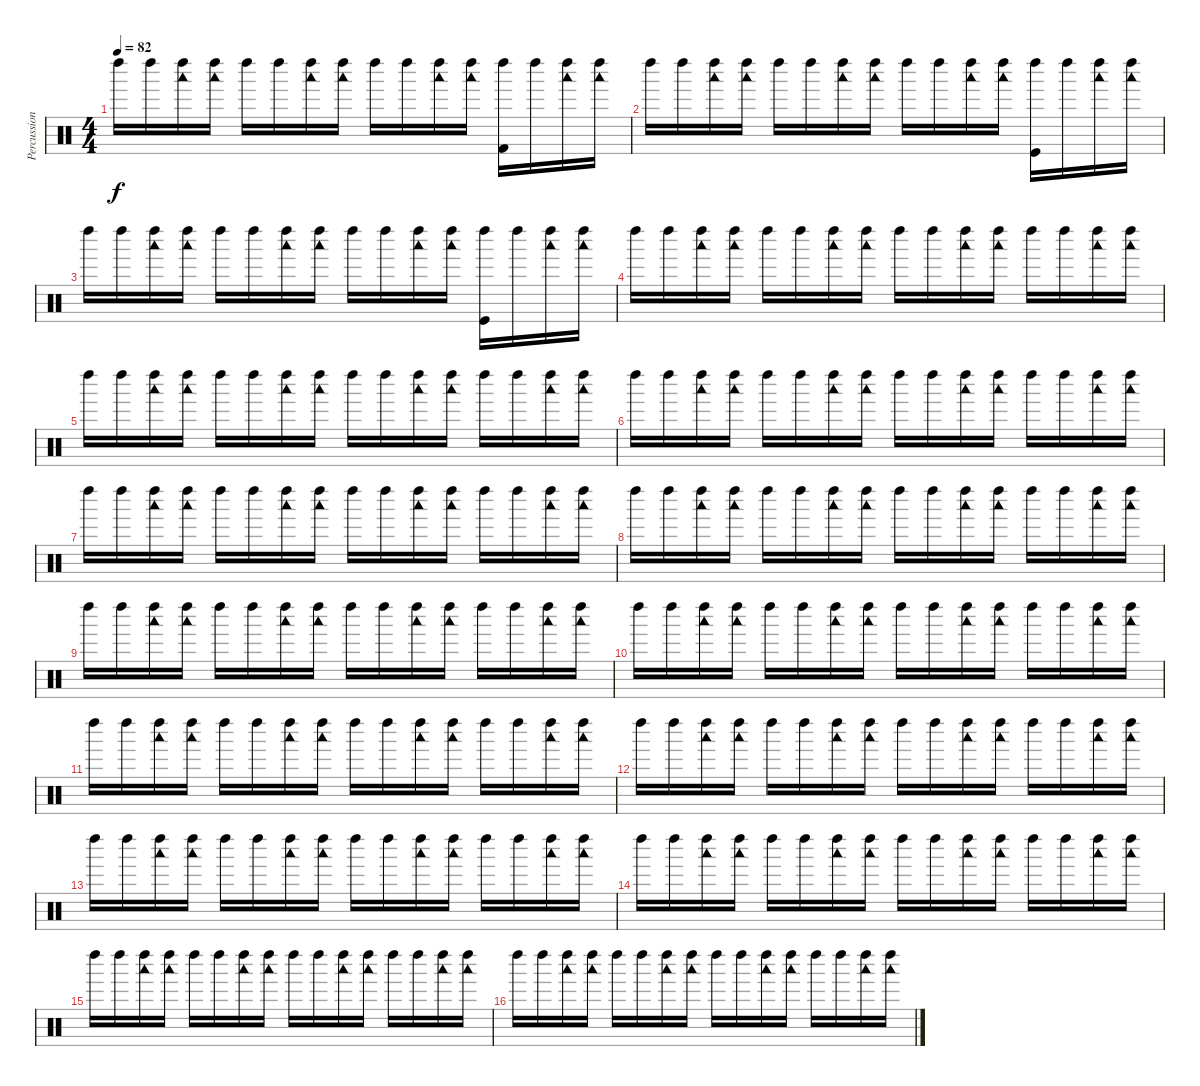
\track ("Percussion" "Percussion") {instrument percussion}
\staff {score}
\articulation defaults
\ts (4 4)
\tempo 82
\clef neutral
\ks c "Left Maraca (hit)".16{dy f} "Left Maraca (hit)".16
("Left Maraca (hit)" "Woodblock low (hit)").16 ("Left Maraca (hit)" "Woodblock low (hit)").16 "Left Maraca (hit)".16 "Left Maraca (hit)".16 ("Left Maraca (hit)" "Woodblock low (hit)").16 ("Left Maraca (hit)" "Woodblock low (hit)").16 "Left Maraca (hit)".16 "Left Maraca (hit)".16 ("Left Maraca (hit)" "Woodblock low (hit)").16 ("Left Maraca (hit)" "Woodblock low (hit)").16 ("Left Maraca (hit)" "Kick (hit) 2").16 "Left Maraca (hit)".16 ("Left Maraca (hit)" "Woodblock low (hit)").16 ("Left Maraca (hit)" "Woodblock low (hit)").16 |
"Left Maraca (hit)".16 "Left Maraca (hit)".16 ("Left Maraca (hit)" "Woodblock low (hit)").16 ("Left Maraca (hit)" "Woodblock low (hit)").16 "Left Maraca (hit)".16 "Left Maraca (hit)".16 ("Left Maraca (hit)" "Woodblock low (hit)").16 ("Left Maraca (hit)" "Woodblock low (hit)").16 "Left Maraca (hit)".16 "Left Maraca (hit)".16 ("Left Maraca (hit)" "Woodblock low (hit)").16 ("Left Maraca (hit)" "Woodblock low (hit)").16 ("Left Maraca (hit)" "Kick (hit)").16 "Left Maraca (hit)".16 ("Left Maraca (hit)" "Woodblock low (hit)").16 ("Left Maraca (hit)" "Woodblock low (hit)").16 |
"Left Maraca (hit)".16 "Left Maraca (hit)".16 ("Left Maraca (hit)" "Woodblock low (hit)").16 ("Left Maraca (hit)" "Woodblock low (hit)").16 "Left Maraca (hit)".16 "Left Maraca (hit)".16 ("Left Maraca (hit)" "Woodblock low (hit)").16 ("Left Maraca (hit)" "Woodblock low (hit)").16 "Left Maraca (hit)".16 "Left Maraca (hit)".16 ("Left Maraca (hit)" "Woodblock low (hit)").16 ("Left Maraca (hit)" "Woodblock low (hit)").16 ("Left Maraca (hit)" "Kick (hit)").16 "Left Maraca (hit)".16 ("Left Maraca (hit)" "Woodblock low (hit)").16 ("Left Maraca (hit)" "Woodblock low (hit)").16 |
"Left Maraca (hit)".16 "Left Maraca (hit)".16 ("Left Maraca (hit)" "Woodblock low (hit)").16 ("Left Maraca (hit)" "Woodblock low (hit)").16 "Left Maraca (hit)".16 "Left Maraca (hit)".16 ("Left Maraca (hit)" "Woodblock low (hit)").16 ("Left Maraca (hit)" "Woodblock low (hit)").16 "Left Maraca (hit)".16 "Left Maraca (hit)".16 ("Left Maraca (hit)" "Woodblock low (hit)").16 ("Left Maraca (hit)" "Woodblock low (hit)").16 "Left Maraca (hit)".16 "Left Maraca (hit)".16 ("Left Maraca (hit)" "Woodblock low (hit)").16 ("Left Maraca (hit)" "Woodblock low (hit)").16 |
"Left Maraca (hit)".16 "Left Maraca (hit)".16 ("Left Maraca (hit)" "Woodblock low (hit)").16 ("Left Maraca (hit)" "Woodblock low (hit)").16 "Left Maraca (hit)".16 "Left Maraca (hit)".16 ("Left Maraca (hit)" "Woodblock low (hit)").16 ("Left Maraca (hit)" "Woodblock low (hit)").16 "Left Maraca (hit)".16 "Left Maraca (hit)".16 ("Left Maraca (hit)" "Woodblock low (hit)").16 ("Left Maraca (hit)" "Woodblock low (hit)").16 "Left Maraca (hit)".16 "Left Maraca (hit)".16 ("Left Maraca (hit)" "Woodblock low (hit)").16 ("Left Maraca (hit)" "Woodblock low (hit)").16 |
"Left Maraca (hit)".16 "Left Maraca (hit)".16 ("Left Maraca (hit)" "Woodblock low (hit)").16 ("Left Maraca (hit)" "Woodblock low (hit)").16 "Left Maraca (hit)".16 "Left Maraca (hit)".16 ("Left Maraca (hit)" "Woodblock low (hit)").16 ("Left Maraca (hit)" "Woodblock low (hit)").16 "Left Maraca (hit)".16 "Left Maraca (hit)".16 ("Left Maraca (hit)" "Woodblock low (hit)").16 ("Left Maraca (hit)" "Woodblock low (hit)").16 "Left Maraca (hit)".16 "Left Maraca (hit)".16 ("Left Maraca (hit)" "Woodblock low (hit)").16 ("Left Maraca (hit)" "Woodblock low (hit)").16 |
"Left Maraca (hit)".16 "Left Maraca (hit)".16 ("Left Maraca (hit)" "Woodblock low (hit)").16 ("Left Maraca (hit)" "Woodblock low (hit)").16 "Left Maraca (hit)".16 "Left Maraca (hit)".16 ("Left Maraca (hit)" "Woodblock low (hit)").16 ("Left Maraca (hit)" "Woodblock low (hit)").16 "Left Maraca (hit)".16 "Left Maraca (hit)".16 ("Left Maraca (hit)" "Woodblock low (hit)").16 ("Left Maraca (hit)" "Woodblock low (hit)").16 "Left Maraca (hit)".16 "Left Maraca (hit)".16 ("Left Maraca (hit)" "Woodblock low (hit)").16 ("Left Maraca (hit)" "Woodblock low (hit)").16 |
"Left Maraca (hit)".16 "Left Maraca (hit)".16 ("Left Maraca (hit)" "Woodblock low (hit)").16 ("Left Maraca (hit)" "Woodblock low (hit)").16 "Left Maraca (hit)".16 "Left Maraca (hit)".16 ("Left Maraca (hit)" "Woodblock low (hit)").16 ("Left Maraca (hit)" "Woodblock low (hit)").16 "Left Maraca (hit)".16 "Left Maraca (hit)".16 ("Left Maraca (hit)" "Woodblock low (hit)").16 ("Left Maraca (hit)" "Woodblock low (hit)").16 "Left Maraca (hit)".16 "Left Maraca (hit)".16 ("Left Maraca (hit)" "Woodblock low (hit)").16 ("Left Maraca (hit)" "Woodblock low (hit)").16 |
"Left Maraca (hit)".16 "Left Maraca (hit)".16 ("Left Maraca (hit)" "Woodblock low (hit)").16 ("Left Maraca (hit)" "Woodblock low (hit)").16 "Left Maraca (hit)".16 "Left Maraca (hit)".16 ("Left Maraca (hit)" "Woodblock low (hit)").16 ("Left Maraca (hit)" "Woodblock low (hit)").16 "Left Maraca (hit)".16 "Left Maraca (hit)".16 ("Left Maraca (hit)" "Woodblock low (hit)").16 ("Left Maraca (hit)" "Woodblock low (hit)").16 "Left Maraca (hit)".16 "Left Maraca (hit)".16 ("Left Maraca (hit)" "Woodblock low (hit)").16 ("Left Maraca (hit)" "Woodblock low (hit)").16 |
"Left Maraca (hit)".16 "Left Maraca (hit)".16 ("Left Maraca (hit)" "Woodblock low (hit)").16 ("Left Maraca (hit)" "Woodblock low (hit)").16 "Left Maraca (hit)".16 "Left Maraca (hit)".16 ("Left Maraca (hit)" "Woodblock low (hit)").16 ("Left Maraca (hit)" "Woodblock low (hit)").16 "Left Maraca (hit)".16 "Left Maraca (hit)".16 ("Left Maraca (hit)" "Woodblock low (hit)").16 ("Left Maraca (hit)" "Woodblock low (hit)").16 "Left Maraca (hit)".16 "Left Maraca (hit)".16 ("Left Maraca (hit)" "Woodblock low (hit)").16 ("Left Maraca (hit)" "Woodblock low (hit)").16 |
"Left Maraca (hit)".16 "Left Maraca (hit)".16 ("Left Maraca (hit)" "Woodblock low (hit)").16 ("Left Maraca (hit)" "Woodblock low (hit)").16 "Left Maraca (hit)".16 "Left Maraca (hit)".16 ("Left Maraca (hit)" "Woodblock low (hit)").16 ("Left Maraca (hit)" "Woodblock low (hit)").16 "Left Maraca (hit)".16 "Left Maraca (hit)".16 ("Left Maraca (hit)" "Woodblock low (hit)").16 ("Left Maraca (hit)" "Woodblock low (hit)").16 "Left Maraca (hit)".16 "Left Maraca (hit)".16 ("Left Maraca (hit)" "Woodblock low (hit)").16 ("Left Maraca (hit)" "Woodblock low (hit)").16 |
"Left Maraca (hit)".16 "Left Maraca (hit)".16 ("Left Maraca (hit)" "Woodblock low (hit)").16 ("Left Maraca (hit)" "Woodblock low (hit)").16 "Left Maraca (hit)".16 "Left Maraca (hit)".16 ("Left Maraca (hit)" "Woodblock low (hit)").16 ("Left Maraca (hit)" "Woodblock low (hit)").16 "Left Maraca (hit)".16 "Left Maraca (hit)".16 ("Left Maraca (hit)" "Woodblock low (hit)").16 ("Left Maraca (hit)" "Woodblock low (hit)").16 "Left Maraca (hit)".16 "Left Maraca (hit)".16 ("Left Maraca (hit)" "Woodblock low (hit)").16 ("Left Maraca (hit)" "Woodblock low (hit)").16 |
"Left Maraca (hit)".16 "Left Maraca (hit)".16 ("Left Maraca (hit)" "Woodblock low (hit)").16 ("Left Maraca (hit)" "Woodblock low (hit)").16 "Left Maraca (hit)".16 "Left Maraca (hit)".16 ("Left Maraca (hit)" "Woodblock low (hit)").16 ("Left Maraca (hit)" "Woodblock low (hit)").16 "Left Maraca (hit)".16 "Left Maraca (hit)".16 ("Left Maraca (hit)" "Woodblock low (hit)").16 ("Left Maraca (hit)" "Woodblock low (hit)").16 "Left Maraca (hit)".16 "Left Maraca (hit)".16 ("Left Maraca (hit)" "Woodblock low (hit)").16 ("Left Maraca (hit)" "Woodblock low (hit)").16 |
"Left Maraca (hit)".16 "Left Maraca (hit)".16 ("Left Maraca (hit)" "Woodblock low (hit)").16 ("Left Maraca (hit)" "Woodblock low (hit)").16 "Left Maraca (hit)".16 "Left Maraca (hit)".16 ("Left Maraca (hit)" "Woodblock low (hit)").16 ("Left Maraca (hit)" "Woodblock low (hit)").16 "Left Maraca (hit)".16 "Left Maraca (hit)".16 ("Left Maraca (hit)" "Woodblock low (hit)").16 ("Left Maraca (hit)" "Woodblock low (hit)").16 "Left Maraca (hit)".16 "Left Maraca (hit)".16 ("Left Maraca (hit)" "Woodblock low (hit)").16 ("Left Maraca (hit)" "Woodblock low (hit)").16 |
"Left Maraca (hit)".16 "Left Maraca (hit)".16 ("Left Maraca (hit)" "Woodblock low (hit)").16 ("Left Maraca (hit)" "Woodblock low (hit)").16 "Left Maraca (hit)".16 "Left Maraca (hit)".16 ("Left Maraca (hit)" "Woodblock low (hit)").16 ("Left Maraca (hit)" "Woodblock low (hit)").16 "Left Maraca (hit)".16 "Left Maraca (hit)".16 ("Left Maraca (hit)" "Woodblock low (hit)").16 ("Left Maraca (hit)" "Woodblock low (hit)").16 "Left Maraca (hit)".16 "Left Maraca (hit)".16 ("Left Maraca (hit)" "Woodblock low (hit)").16 ("Left Maraca (hit)" "Woodblock low (hit)").16 |
"Left Maraca (hit)".16 "Left Maraca (hit)".16 ("Left Maraca (hit)" "Woodblock low (hit)").16 ("Left Maraca (hit)" "Woodblock low (hit)").16 "Left Maraca (hit)".16 "Left Maraca (hit)".16 ("Left Maraca (hit)" "Woodblock low (hit)").16 ("Left Maraca (hit)" "Woodblock low (hit)").16 "Left Maraca (hit)".16 "Left Maraca (hit)".16 ("Left Maraca (hit)" "Woodblock low (hit)").16 ("Left Maraca (hit)" "Woodblock low (hit)").16 "Left Maraca (hit)".16 "Left Maraca (hit)".16 ("Left Maraca (hit)" "Woodblock low (hit)").16 ("Left Maraca (hit)" "Woodblock low (hit)").16
